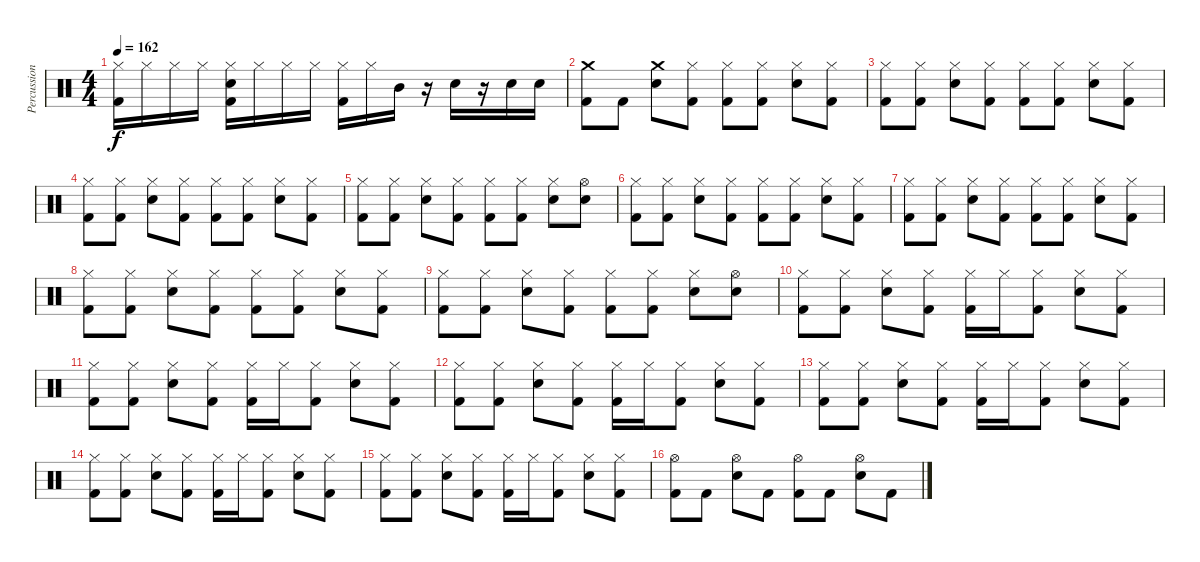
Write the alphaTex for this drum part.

\track ("Percussion" "Percussion") {instrument percussion}
\staff {score}
\articulation defaults
\ts (4 4)
\tempo 162
\clef neutral
\ks c
("Kick (hit) 2" "Hi-Hat (closed)").16{dy f} "Hi-Hat (closed)".16 "Hi-Hat (closed)".16 "Hi-Hat (closed)".16 ("Kick (hit) 2" "Snare (hit) 2" "Hi-Hat (closed)").16 "Hi-Hat (closed)".16 "Hi-Hat (closed)".16 "Hi-Hat (closed)".16 ("Kick (hit) 2" "Hi-Hat (closed)").16 "Hi-Hat (closed)".16 "Mid Tom (hit)".16 r.16 "Snare (hit) 2".16 r.16 "Snare (hit) 2".16 "Snare (hit) 2".16 |
("Kick (hit) 2" "Crash medium (hit)").8 "Kick (hit) 2".8 ("Snare (hit) 2" "Crash medium (hit)").8 ("Kick (hit) 2" "Hi-Hat (closed)").8 ("Kick (hit) 2" "Hi-Hat (closed)").8 ("Kick (hit) 2" "Hi-Hat (closed)").8 ("Snare (hit) 2" "Hi-Hat (closed)").8 ("Kick (hit) 2" "Hi-Hat (closed)").8 |
("Kick (hit) 2" "Hi-Hat (closed)").8 ("Kick (hit) 2" "Hi-Hat (closed)").8 ("Snare (hit) 2" "Hi-Hat (closed)").8 ("Kick (hit) 2" "Hi-Hat (closed)").8 ("Kick (hit) 2" "Hi-Hat (closed)").8 ("Kick (hit) 2" "Hi-Hat (closed)").8 ("Snare (hit) 2" "Hi-Hat (closed)").8 ("Kick (hit) 2" "Hi-Hat (closed)").8 |
("Kick (hit) 2" "Hi-Hat (closed)").8 ("Kick (hit) 2" "Hi-Hat (closed)").8 ("Snare (hit) 2" "Hi-Hat (closed)").8 ("Kick (hit) 2" "Hi-Hat (closed)").8 ("Kick (hit) 2" "Hi-Hat (closed)").8 ("Kick (hit) 2" "Hi-Hat (closed)").8 ("Snare (hit) 2" "Hi-Hat (closed)").8 ("Kick (hit) 2" "Hi-Hat (closed)").8 |
("Kick (hit) 2" "Hi-Hat (closed)").8 ("Kick (hit) 2" "Hi-Hat (closed)").8 ("Snare (hit) 2" "Hi-Hat (closed)").8 ("Kick (hit) 2" "Hi-Hat (closed)").8 ("Kick (hit) 2" "Hi-Hat (closed)").8 ("Kick (hit) 2" "Hi-Hat (closed)").8 ("Snare (hit) 2" "Hi-Hat (closed)").8 ("Snare (hit) 2" "Hi-Hat (open)").8 |
("Kick (hit) 2" "Hi-Hat (closed)").8 ("Kick (hit) 2" "Hi-Hat (closed)").8 ("Snare (hit) 2" "Hi-Hat (closed)").8 ("Kick (hit) 2" "Hi-Hat (closed)").8 ("Kick (hit) 2" "Hi-Hat (closed)").8 ("Kick (hit) 2" "Hi-Hat (closed)").8 ("Snare (hit) 2" "Hi-Hat (closed)").8 ("Kick (hit) 2" "Hi-Hat (closed)").8 |
("Kick (hit) 2" "Hi-Hat (closed)").8 ("Kick (hit) 2" "Hi-Hat (closed)").8 ("Snare (hit) 2" "Hi-Hat (closed)").8 ("Kick (hit) 2" "Hi-Hat (closed)").8 ("Kick (hit) 2" "Hi-Hat (closed)").8 ("Kick (hit) 2" "Hi-Hat (closed)").8 ("Snare (hit) 2" "Hi-Hat (closed)").8 ("Kick (hit) 2" "Hi-Hat (closed)").8 |
("Kick (hit) 2" "Hi-Hat (closed)").8 ("Kick (hit) 2" "Hi-Hat (closed)").8 ("Snare (hit) 2" "Hi-Hat (closed)").8 ("Kick (hit) 2" "Hi-Hat (closed)").8 ("Kick (hit) 2" "Hi-Hat (closed)").8 ("Kick (hit) 2" "Hi-Hat (closed)").8 ("Snare (hit) 2" "Hi-Hat (closed)").8 ("Kick (hit) 2" "Hi-Hat (closed)").8 |
("Kick (hit) 2" "Hi-Hat (closed)").8 ("Kick (hit) 2" "Hi-Hat (closed)").8 ("Snare (hit) 2" "Hi-Hat (closed)").8 ("Kick (hit) 2" "Hi-Hat (closed)").8 ("Kick (hit) 2" "Hi-Hat (closed)").8 ("Kick (hit) 2" "Hi-Hat (closed)").8 ("Snare (hit) 2" "Hi-Hat (closed)").8 ("Snare (hit) 2" "Hi-Hat (open)").8 |
("Kick (hit) 2" "Hi-Hat (closed)").8 ("Kick (hit) 2" "Hi-Hat (closed)").8 ("Snare (hit) 2" "Hi-Hat (closed)").8 ("Kick (hit) 2" "Hi-Hat (closed)").8 ("Kick (hit) 2" "Hi-Hat (closed)").16 "Hi-Hat (closed)".16 ("Kick (hit) 2" "Hi-Hat (closed)").8 ("Snare (hit) 2" "Hi-Hat (closed)").8 ("Kick (hit) 2" "Hi-Hat (closed)").8 |
("Kick (hit) 2" "Hi-Hat (closed)").8 ("Kick (hit) 2" "Hi-Hat (closed)").8 ("Snare (hit) 2" "Hi-Hat (closed)").8 ("Kick (hit) 2" "Hi-Hat (closed)").8 ("Kick (hit) 2" "Hi-Hat (closed)").16 "Hi-Hat (closed)".16 ("Kick (hit) 2" "Hi-Hat (closed)").8 ("Snare (hit) 2" "Hi-Hat (closed)").8 ("Kick (hit) 2" "Hi-Hat (closed)").8 |
("Kick (hit) 2" "Hi-Hat (closed)").8 ("Kick (hit) 2" "Hi-Hat (closed)").8 ("Snare (hit) 2" "Hi-Hat (closed)").8 ("Kick (hit) 2" "Hi-Hat (closed)").8 ("Kick (hit) 2" "Hi-Hat (closed)").16 "Hi-Hat (closed)".16 ("Kick (hit) 2" "Hi-Hat (closed)").8 ("Snare (hit) 2" "Hi-Hat (closed)").8 ("Kick (hit) 2" "Hi-Hat (closed)").8 |
("Kick (hit) 2" "Hi-Hat (closed)").8 ("Kick (hit) 2" "Hi-Hat (closed)").8 ("Snare (hit) 2" "Hi-Hat (closed)").8 ("Kick (hit) 2" "Hi-Hat (closed)").8 ("Kick (hit) 2" "Hi-Hat (closed)").16 "Hi-Hat (closed)".16 ("Kick (hit) 2" "Hi-Hat (closed)").8 ("Snare (hit) 2" "Hi-Hat (closed)").8 ("Kick (hit) 2" "Hi-Hat (closed)").8 |
("Kick (hit) 2" "Hi-Hat (closed)").8 ("Kick (hit) 2" "Hi-Hat (closed)").8 ("Snare (hit) 2" "Hi-Hat (closed)").8 ("Kick (hit) 2" "Hi-Hat (closed)").8 ("Kick (hit) 2" "Hi-Hat (closed)").16 "Hi-Hat (closed)".16 ("Kick (hit) 2" "Hi-Hat (closed)").8 ("Snare (hit) 2" "Hi-Hat (closed)").8 ("Kick (hit) 2" "Hi-Hat (closed)").8 |
("Kick (hit) 2" "Hi-Hat (closed)").8 ("Kick (hit) 2" "Hi-Hat (closed)").8 ("Snare (hit) 2" "Hi-Hat (closed)").8 ("Kick (hit) 2" "Hi-Hat (closed)").8 ("Kick (hit) 2" "Hi-Hat (closed)").16 "Hi-Hat (closed)".16 ("Kick (hit) 2" "Hi-Hat (closed)").8 ("Snare (hit) 2" "Hi-Hat (closed)").8 ("Kick (hit) 2" "Hi-Hat (closed)").8 |
("Kick (hit) 2" "Hi-Hat (open)").8 "Kick (hit) 2".8 ("Snare (hit) 2" "Hi-Hat (open)").8 "Kick (hit) 2".8 ("Kick (hit) 2" "Hi-Hat (open)").8 "Kick (hit) 2".8 ("Snare (hit) 2" "Hi-Hat (open)").8 "Kick (hit) 2".8
